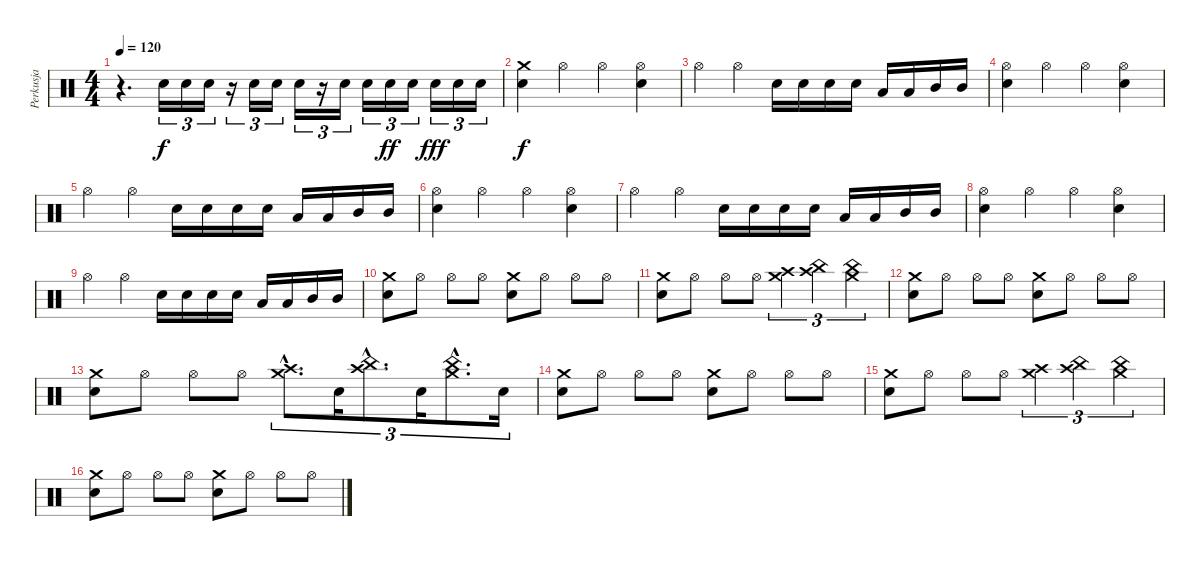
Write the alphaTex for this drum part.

\track ("Perkusja" "Perkusja") {instrument percussion}
\staff {score}
\articulation defaults
\ts (4 4)
\tempo 120
\clef neutral
\ks c
r.4{d dy fff} "Snare (hit) 2".16{tu (3 2) dy f} "Snare (hit) 2".16{tu (3 2)} "Snare (hit) 2".16{tu (3 2)} r.16{tu (3 2)} "Snare (hit) 2".16{tu (3 2)} "Snare (hit) 2".16{tu (3 2)} "Snare (hit) 2".16{tu (3 2)} r.16{tu (3 2)} "Snare (hit) 2".16{tu (3 2)} "Snare (hit) 2".16{tu (3 2)} "Snare (hit) 2".16{tu (3 2) dy ff} "Snare (hit) 2".16{tu (3 2)} "Snare (hit) 2".16{tu (3 2) dy fff} "Snare (hit) 2".16{tu (3 2)} "Snare (hit) 2".16{tu (3 2)} |
("Crash medium (hit)" "Snare (hit) 2").4{dy f} "Hi-Hat (open)".4 "Hi-Hat (open)".4 ("Hi-Hat (open)" "Snare (hit) 2").4 |
"Hi-Hat (open)".4 "Hi-Hat (open)".4 "Snare (hit) 2".16 "Snare (hit) 2".16 "Snare (hit) 2".16 "Snare (hit) 2".16 "Low Tom (hit)".16 "Low Tom (hit)".16 "Mid Tom (hit)".16 "Mid Tom (hit)".16 |
("Hi-Hat (open)" "Snare (hit) 2").4 "Hi-Hat (open)".4 "Hi-Hat (open)".4 ("Hi-Hat (open)" "Snare (hit) 2").4 |
"Hi-Hat (open)".4 "Hi-Hat (open)".4 "Snare (hit) 2".16 "Snare (hit) 2".16 "Snare (hit) 2".16 "Snare (hit) 2".16 "Low Tom (hit)".16 "Low Tom (hit)".16 "Mid Tom (hit)".16 "Mid Tom (hit)".16 |
("Hi-Hat (open)" "Snare (hit) 2").4 "Hi-Hat (open)".4 "Hi-Hat (open)".4 ("Hi-Hat (open)" "Snare (hit) 2").4 |
"Hi-Hat (open)".4 "Hi-Hat (open)".4 "Snare (hit) 2".16 "Snare (hit) 2".16 "Snare (hit) 2".16 "Snare (hit) 2".16 "Low Tom (hit)".16 "Low Tom (hit)".16 "Mid Tom (hit)".16 "Mid Tom (hit)".16 |
("Hi-Hat (open)" "Snare (hit) 2").4 "Hi-Hat (open)".4 "Hi-Hat (open)".4 ("Hi-Hat (open)" "Snare (hit) 2").4 |
"Hi-Hat (open)".4 "Hi-Hat (open)".4 "Snare (hit) 2".16 "Snare (hit) 2".16 "Snare (hit) 2".16 "Snare (hit) 2".16 "Low Tom (hit)".16 "Low Tom (hit)".16 "Mid Tom (hit)".16 "Mid Tom (hit)".16 |
("Snare (hit) 2" "Crash medium (hit)").8 "Hi-Hat (open)".8 "Hi-Hat (open)".8 "Hi-Hat (open)".8 ("Snare (hit) 2" "Crash medium (hit)").8 "Hi-Hat (open)".8 "Hi-Hat (open)".8 "Hi-Hat (open)".8 |
("Snare (hit) 2" "Crash medium (hit)").8 "Hi-Hat (open)".8 "Hi-Hat (open)".8 "Hi-Hat (open)".8 ("Crash medium (hit)" "Crash high (hit)").4{tu (3 2)} ("Crash high (hit)" "China (hit)").4{tu (3 2)} ("Crash medium (hit)" "China (hit)").4{tu (3 2)} |
("Snare (hit) 2" "Crash medium (hit)").8 "Hi-Hat (open)".8 "Hi-Hat (open)".8 "Hi-Hat (open)".8 ("Snare (hit) 2" "Crash medium (hit)").8 "Hi-Hat (open)".8 "Hi-Hat (open)".8 "Hi-Hat (open)".8 |
("Snare (hit) 2" "Crash medium (hit)").8 "Hi-Hat (open)".8 "Hi-Hat (open)".8 "Hi-Hat (open)".8 ("Crash medium (hit)"{hac} "Crash high (hit)"{hac}).8{d tu (3 2)} "Snare (hit) 2".16{tu (3 2)} ("Crash high (hit)"{hac} "China (hit)"{hac}).8{d tu (3 2)} "Snare (hit) 2".16{tu (3 2)} ("Crash medium (hit)"{hac} "China (hit)"{hac}).8{d tu (3 2)} "Snare (hit) 2".16{tu (3 2)} |
("Snare (hit) 2" "Crash medium (hit)").8 "Hi-Hat (open)".8 "Hi-Hat (open)".8 "Hi-Hat (open)".8 ("Snare (hit) 2" "Crash medium (hit)").8 "Hi-Hat (open)".8 "Hi-Hat (open)".8 "Hi-Hat (open)".8 |
("Snare (hit) 2" "Crash medium (hit)").8 "Hi-Hat (open)".8 "Hi-Hat (open)".8 "Hi-Hat (open)".8 ("Crash medium (hit)" "Crash high (hit)").4{tu (3 2)} ("Crash high (hit)" "China (hit)").4{tu (3 2)} ("Crash medium (hit)" "China (hit)").4{tu (3 2)} |
("Snare (hit) 2" "Crash medium (hit)").8 "Hi-Hat (open)".8 "Hi-Hat (open)".8 "Hi-Hat (open)".8 ("Snare (hit) 2" "Crash medium (hit)").8 "Hi-Hat (open)".8 "Hi-Hat (open)".8 "Hi-Hat (open)".8
